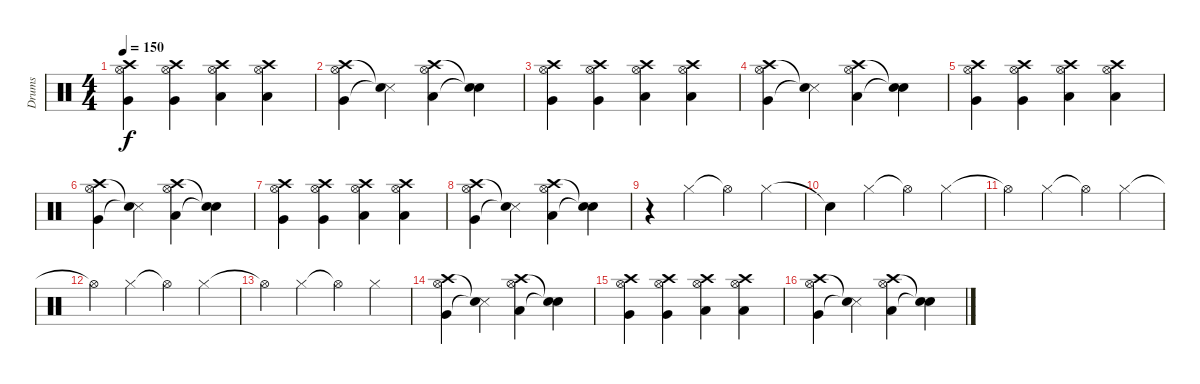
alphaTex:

\track ("Drums" "Drums") {instrument percussion}
\staff {score}
\articulation defaults
\ts (4 4)
\tempo 150
\clef neutral
\ks c
("Crash high (hit)" "Very Low Tom (hit)" "Hi-Hat (open)").4{dy f} ("Crash high (hit)" "Very Low Tom (hit)" "Hi-Hat (open)").4 ("Crash high (hit)" "Low Floor Tom (hit)" "Hi-Hat (open)").4 ("Crash high (hit)" "Low Floor Tom (hit)" "Hi-Hat (open)").4 |
("Crash high (hit)" "Very Low Tom (hit)" "Hi-Hat (open)").4 ("Snare (side stick) 3"{t} "Snare (hit)"{t}).4 ("Crash high (hit)" "Low Floor Tom (hit)" "Hi-Hat (open)").4 ("Snare (hit)"{t} "Snare (hit)"{t}).4 |
("Crash high (hit)" "Very Low Tom (hit)" "Hi-Hat (open)").4 ("Crash high (hit)" "Very Low Tom (hit)" "Hi-Hat (open)").4 ("Crash high (hit)" "Low Floor Tom (hit)" "Hi-Hat (open)").4 ("Crash high (hit)" "Low Floor Tom (hit)" "Hi-Hat (open)").4 |
("Crash high (hit)" "Very Low Tom (hit)" "Hi-Hat (open)").4 ("Snare (side stick) 3"{t} "Snare (hit)"{t}).4 ("Crash high (hit)" "Low Floor Tom (hit)" "Hi-Hat (open)").4 ("Snare (hit)"{t} "Snare (hit)"{t}).4 |
("Crash high (hit)" "Very Low Tom (hit)" "Hi-Hat (open)").4 ("Crash high (hit)" "Very Low Tom (hit)" "Hi-Hat (open)").4 ("Crash high (hit)" "Low Floor Tom (hit)" "Hi-Hat (open)").4 ("Crash high (hit)" "Low Floor Tom (hit)" "Hi-Hat (open)").4 |
("Crash high (hit)" "Very Low Tom (hit)" "Hi-Hat (open)").4 ("Snare (side stick) 3"{t} "Snare (hit)"{t}).4 ("Crash high (hit)" "Low Floor Tom (hit)" "Hi-Hat (open)").4 ("Snare (hit)"{t} "Snare (hit)"{t}).4 |
("Crash high (hit)" "Very Low Tom (hit)" "Hi-Hat (open)").4 ("Crash high (hit)" "Very Low Tom (hit)" "Hi-Hat (open)").4 ("Crash high (hit)" "Low Floor Tom (hit)" "Hi-Hat (open)").4 ("Crash high (hit)" "Low Floor Tom (hit)" "Hi-Hat (open)").4 |
("Crash high (hit)" "Very Low Tom (hit)" "Hi-Hat (open)").4 ("Snare (side stick) 3"{t} "Snare (hit)"{t}).4 ("Crash high (hit)" "Low Floor Tom (hit)" "Hi-Hat (open)").4 ("Snare (hit)"{t} "Snare (hit)"{t}).4 |
r.4 "Hi-Hat (closed)".4 "Hi-Hat (open)"{t}.4 "Hi-Hat (closed)".4 |
"Snare (hit)"{t}.4 "Hi-Hat (closed)".4 "Hi-Hat (open)"{t}.4 "Hi-Hat (closed)".4 |
"Hi-Hat (open)"{t}.4 "Hi-Hat (closed)".4 "Hi-Hat (open)"{t}.4 "Hi-Hat (closed)".4 |
"Hi-Hat (open)"{t}.4 "Hi-Hat (closed)".4 "Hi-Hat (open)"{t}.4 "Hi-Hat (closed)".4 |
"Hi-Hat (open)"{t}.4 "Hi-Hat (closed)".4 "Hi-Hat (open)"{t}.4 "Hi-Hat (closed)".4 |
("Crash high (hit)" "Very Low Tom (hit)" "Hi-Hat (open)").4 ("Snare (side stick) 3"{t} "Snare (hit)"{t}).4 ("Crash high (hit)" "Low Floor Tom (hit)" "Hi-Hat (open)").4 ("Snare (hit)"{t} "Snare (hit)"{t}).4 |
("Crash high (hit)" "Very Low Tom (hit)" "Hi-Hat (open)").4 ("Crash high (hit)" "Very Low Tom (hit)" "Hi-Hat (open)").4 ("Crash high (hit)" "Low Floor Tom (hit)" "Hi-Hat (open)").4 ("Crash high (hit)" "Low Floor Tom (hit)" "Hi-Hat (open)").4 |
("Crash high (hit)" "Very Low Tom (hit)" "Hi-Hat (open)").4 ("Snare (side stick) 3"{t} "Snare (hit)"{t}).4 ("Crash high (hit)" "Low Floor Tom (hit)" "Hi-Hat (open)").4 ("Snare (hit)"{t} "Snare (hit)"{t}).4
